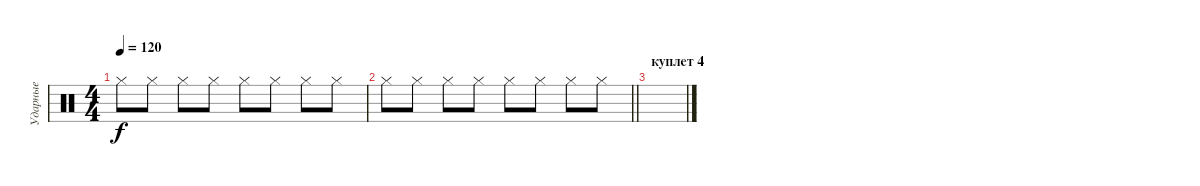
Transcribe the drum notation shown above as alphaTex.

\track ("Ударные" "Ударные") {instrument percussion}
\staff {score}
\articulation defaults
\ts (4 4)
\tempo 120
\clef neutral
\ks c "Hi-Hat (closed)".8{dy f} "Hi-Hat (closed)".8 "Hi-Hat (closed)".8 "Hi-Hat (closed)".8 "Hi-Hat (closed)".8 "Hi-Hat (closed)".8 "Hi-Hat (closed)".8 "Hi-Hat (closed)".8
|
\barLineRight lightlight "Hi-Hat (closed)".8 "Hi-Hat (closed)".8 "Hi-Hat (closed)".8 "Hi-Hat (closed)".8 "Hi-Hat (closed)".8 "Hi-Hat (closed)".8 "Hi-Hat (closed)".8 "Hi-Hat (closed)".8
|
\section ("" "куплет 4")
